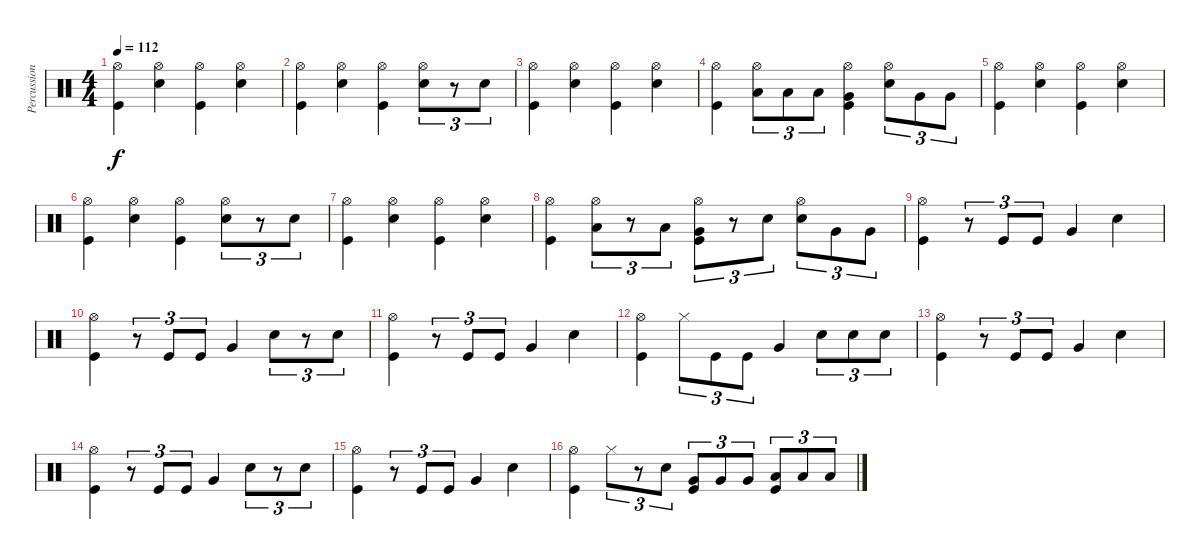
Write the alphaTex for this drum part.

\track ("Percussion" "Percussion") {instrument percussion}
\staff {score}
\articulation defaults
\ts (4 4)
\tempo 112
\clef neutral
\ks c
("Hi-Hat (open)" "Kick (hit)").4{dy f} ("Hi-Hat (open)" "Snare (hit) 2").4 ("Hi-Hat (open)" "Kick (hit)").4 ("Hi-Hat (open)" "Snare (hit) 2").4 |
("Hi-Hat (open)" "Kick (hit)").4 ("Hi-Hat (open)" "Snare (hit) 2").4 ("Hi-Hat (open)" "Kick (hit)").4 ("Hi-Hat (open)" "Snare (hit) 2").8{tu (3 2)} r.8{tu (3 2)} "Snare (hit) 2".8{tu (3 2)} |
("Hi-Hat (open)" "Kick (hit)").4 ("Hi-Hat (open)" "Snare (hit) 2").4 ("Hi-Hat (open)" "Kick (hit)").4 ("Hi-Hat (open)" "Snare (hit) 2").4 |
("Hi-Hat (open)" "Kick (hit)").4 ("Hi-Hat (open)" "Low Tom (hit)").8{tu (3 2)} "Low Tom (hit)".8{tu (3 2)} "Low Tom (hit)".8{tu (3 2)} ("Hi-Hat (open)" "Very Low Tom (hit)" "Kick (hit)").4 ("Hi-Hat (open)" "Snare (hit) 2").8{tu (3 2)} "Very Low Tom (hit)".8{tu (3 2)} "Very Low Tom (hit)".8{tu (3 2)} |
("Hi-Hat (open)" "Kick (hit)").4 ("Hi-Hat (open)" "Snare (hit) 2").4 ("Hi-Hat (open)" "Kick (hit)").4 ("Hi-Hat (open)" "Snare (hit) 2").4 |
("Hi-Hat (open)" "Kick (hit)").4 ("Hi-Hat (open)" "Snare (hit) 2").4 ("Hi-Hat (open)" "Kick (hit)").4 ("Hi-Hat (open)" "Snare (hit) 2").8{tu (3 2)} r.8{tu (3 2)} "Snare (hit) 2".8{tu (3 2)} |
("Hi-Hat (open)" "Kick (hit)").4 ("Hi-Hat (open)" "Snare (hit) 2").4 ("Hi-Hat (open)" "Kick (hit)").4 ("Hi-Hat (open)" "Snare (hit) 2").4 |
("Hi-Hat (open)" "Kick (hit)").4 ("Hi-Hat (open)" "Low Tom (hit)").8{tu (3 2)} r.8{tu (3 2)} "Low Tom (hit)".8{tu (3 2)} ("Hi-Hat (open)" "Very Low Tom (hit)" "Kick (hit)").8{tu (3 2)} r.8{tu (3 2)} "Snare (hit) 2".8{tu (3 2)} ("Hi-Hat (open)" "Snare (hit) 2").8{tu (3 2)} "Very Low Tom (hit)".8{tu (3 2)} "Very Low Tom (hit)".8{tu (3 2)} |
("Hi-Hat (open)" "Kick (hit)").4 r.8{tu (3 2)} "Kick (hit)".8{tu (3 2)} "Kick (hit)".8{tu (3 2)} "Very Low Tom (hit)".4 "Snare (hit) 2".4 |
("Hi-Hat (open)" "Kick (hit)").4 r.8{tu (3 2)} "Kick (hit)".8{tu (3 2)} "Kick (hit)".8{tu (3 2)} "Very Low Tom (hit)".4 "Snare (hit) 2".8{tu (3 2)} r.8{tu (3 2)} "Snare (hit) 2".8{tu (3 2)} |
("Hi-Hat (open)" "Kick (hit)").4 r.8{tu (3 2)} "Kick (hit)".8{tu (3 2)} "Kick (hit)".8{tu (3 2)} "Very Low Tom (hit)".4 "Snare (hit) 2".4 |
("Hi-Hat (open)" "Kick (hit)").4 "Hi-Hat (closed)".8{tu (3 2)} "Kick (hit)".8{tu (3 2)} "Kick (hit)".8{tu (3 2)} "Very Low Tom (hit)".4 "Snare (hit) 2".8{tu (3 2)} "Snare (hit) 2".8{tu (3 2)} "Snare (hit) 2".8{tu (3 2)} |
("Hi-Hat (open)" "Kick (hit)").4 r.8{tu (3 2)} "Kick (hit)".8{tu (3 2)} "Kick (hit)".8{tu (3 2)} "Very Low Tom (hit)".4 "Snare (hit) 2".4 |
("Hi-Hat (open)" "Kick (hit)").4 r.8{tu (3 2)} "Kick (hit)".8{tu (3 2)} "Kick (hit)".8{tu (3 2)} "Very Low Tom (hit)".4 "Snare (hit) 2".8{tu (3 2)} r.8{tu (3 2)} "Snare (hit) 2".8{tu (3 2)} |
("Hi-Hat (open)" "Kick (hit)").4 r.8{tu (3 2)} "Kick (hit)".8{tu (3 2)} "Kick (hit)".8{tu (3 2)} "Very Low Tom (hit)".4 "Snare (hit) 2".4 |
("Hi-Hat (open)" "Kick (hit)").4 "Hi-Hat (closed)".8{tu (3 2)} r.8{tu (3 2)} "Snare (hit) 2".8{tu (3 2)} ("Very Low Tom (hit)" "Kick (hit)").8{tu (3 2)} "Very Low Tom (hit)".8{tu (3 2)} "Very Low Tom (hit)".8{tu (3 2)} ("Low Floor Tom (hit)" "Kick (hit)").8{tu (3 2)} "Low Floor Tom (hit)".8{tu (3 2)} "Low Floor Tom (hit)".8{tu (3 2)}
